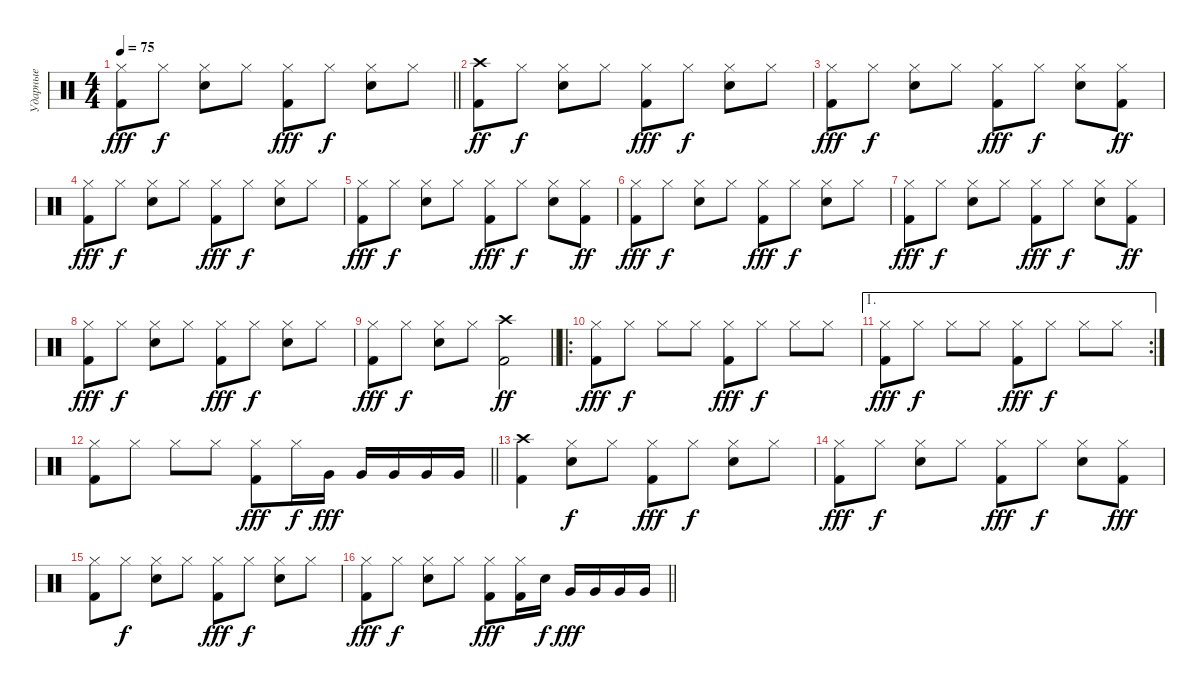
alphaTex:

\track ("Ударные" "Ударные") {instrument percussion}
\staff
\articulation defaults
\ts (4 4)
\tempo 75
\clef neutral
\barLineRight lightlight
\ks c
("Kick (hit) 2" "Hi-Hat (closed)").8{dy fff} "Hi-Hat (closed)".8{dy f} ("Snare (hit) 2" "Hi-Hat (closed)").8 "Hi-Hat (closed)".8 ("Kick (hit) 2" "Hi-Hat (closed)").8{dy fff} "Hi-Hat (closed)".8{dy f} ("Snare (hit) 2" "Hi-Hat (closed)").8 "Hi-Hat (closed)".8 |
("Kick (hit) 2" "Crash high (hit)").8{dy ff} "Hi-Hat (closed)".8{dy f} ("Snare (hit) 2" "Hi-Hat (closed)").8 "Hi-Hat (closed)".8 ("Kick (hit) 2" "Hi-Hat (closed)").8{dy fff} "Hi-Hat (closed)".8{dy f} ("Snare (hit) 2" "Hi-Hat (closed)").8 "Hi-Hat (closed)".8 |
("Kick (hit) 2" "Hi-Hat (closed)").8{dy fff} "Hi-Hat (closed)".8{dy f} ("Snare (hit) 2" "Hi-Hat (closed)").8 "Hi-Hat (closed)".8 ("Kick (hit) 2" "Hi-Hat (closed)").8{dy fff} "Hi-Hat (closed)".8{dy f} ("Snare (hit) 2" "Hi-Hat (closed)").8 ("Kick (hit) 2" "Hi-Hat (closed)").8{dy ff} |
("Kick (hit) 2" "Hi-Hat (closed)").8{dy fff} "Hi-Hat (closed)".8{dy f} ("Snare (hit) 2" "Hi-Hat (closed)").8 "Hi-Hat (closed)".8 ("Kick (hit) 2" "Hi-Hat (closed)").8{dy fff} "Hi-Hat (closed)".8{dy f} ("Snare (hit) 2" "Hi-Hat (closed)").8 "Hi-Hat (closed)".8 |
("Kick (hit) 2" "Hi-Hat (closed)").8{dy fff} "Hi-Hat (closed)".8{dy f} ("Snare (hit) 2" "Hi-Hat (closed)").8 "Hi-Hat (closed)".8 ("Kick (hit) 2" "Hi-Hat (closed)").8{dy fff} "Hi-Hat (closed)".8{dy f} ("Snare (hit) 2" "Hi-Hat (closed)").8 ("Kick (hit) 2" "Hi-Hat (closed)").8{dy ff} |
("Kick (hit) 2" "Hi-Hat (closed)").8{dy fff} "Hi-Hat (closed)".8{dy f} ("Snare (hit) 2" "Hi-Hat (closed)").8 "Hi-Hat (closed)".8 ("Kick (hit) 2" "Hi-Hat (closed)").8{dy fff} "Hi-Hat (closed)".8{dy f} ("Snare (hit) 2" "Hi-Hat (closed)").8 "Hi-Hat (closed)".8 |
("Kick (hit) 2" "Hi-Hat (closed)").8{dy fff} "Hi-Hat (closed)".8{dy f} ("Snare (hit) 2" "Hi-Hat (closed)").8 "Hi-Hat (closed)".8 ("Kick (hit) 2" "Hi-Hat (closed)").8{dy fff} "Hi-Hat (closed)".8{dy f} ("Snare (hit) 2" "Hi-Hat (closed)").8 ("Kick (hit) 2" "Hi-Hat (closed)").8{dy ff} |
("Kick (hit) 2" "Hi-Hat (closed)").8{dy fff} "Hi-Hat (closed)".8{dy f} ("Snare (hit) 2" "Hi-Hat (closed)").8 "Hi-Hat (closed)".8 ("Kick (hit) 2" "Hi-Hat (closed)").8{dy fff} "Hi-Hat (closed)".8{dy f} ("Snare (hit) 2" "Hi-Hat (closed)").8 "Hi-Hat (closed)".8 |
\barLineRight lightlight
("Kick (hit) 2" "Hi-Hat (closed)").8{dy fff} "Hi-Hat (closed)".8{dy f} ("Snare (hit) 2" "Hi-Hat (closed)").8 "Hi-Hat (closed)".8 ("Kick (hit) 2" "Crash high (hit)").2{dy ff} |
\ro
("Kick (hit) 2" "Hi-Hat (closed)").8{dy fff} "Hi-Hat (closed)".8{dy f} "Hi-Hat (closed)".8 "Hi-Hat (closed)".8 ("Kick (hit) 2" "Hi-Hat (closed)").8{dy fff} "Hi-Hat (closed)".8{dy f} "Hi-Hat (closed)".8 "Hi-Hat (closed)".8 |
\ae 1
\rc 2
("Kick (hit) 2" "Hi-Hat (closed)").8{dy fff} "Hi-Hat (closed)".8{dy f} "Hi-Hat (closed)".8 "Hi-Hat (closed)".8 ("Kick (hit) 2" "Hi-Hat (closed)").8{dy fff} "Hi-Hat (closed)".8{dy f} "Hi-Hat (closed)".8 "Hi-Hat (closed)".8 |
\barLineRight lightlight
("Kick (hit) 2" "Hi-Hat (closed)").8 "Hi-Hat (closed)".8 "Hi-Hat (closed)".8 "Hi-Hat (closed)".8 ("Kick (hit) 2" "Hi-Hat (closed)").8{dy fff} "Hi-Hat (closed)".16{dy f} "Very Low Tom (hit)".16{dy fff} "Very Low Tom (hit)".16 "Very Low Tom (hit)".16 "Very Low Tom (hit)".16 "Very Low Tom (hit)".16 |
("Kick (hit) 2" "Crash high (hit)").4 ("Snare (hit) 2" "Hi-Hat (closed)").8{dy f} "Hi-Hat (closed)".8 ("Kick (hit) 2" "Hi-Hat (closed)").8{dy fff} "Hi-Hat (closed)".8{dy f} ("Snare (hit) 2" "Hi-Hat (closed)").8 "Hi-Hat (closed)".8 |
("Kick (hit) 2" "Hi-Hat (closed)").8{dy fff} "Hi-Hat (closed)".8{dy f} ("Snare (hit) 2" "Hi-Hat (closed)").8 "Hi-Hat (closed)".8 ("Kick (hit) 2" "Hi-Hat (closed)").8{dy fff} "Hi-Hat (closed)".8{dy f} ("Snare (hit) 2" "Hi-Hat (closed)").8 ("Kick (hit) 2" "Hi-Hat (closed)").8{dy fff} |
("Kick (hit) 2" "Hi-Hat (closed)").8 "Hi-Hat (closed)".8{dy f} ("Snare (hit) 2" "Hi-Hat (closed)").8 "Hi-Hat (closed)".8 ("Kick (hit) 2" "Hi-Hat (closed)").8{dy fff} "Hi-Hat (closed)".8{dy f} ("Snare (hit) 2" "Hi-Hat (closed)").8 "Hi-Hat (closed)".8 |
\barLineRight lightlight
("Kick (hit) 2" "Hi-Hat (closed)").8{dy fff} "Hi-Hat (closed)".8{dy f} ("Snare (hit) 2" "Hi-Hat (closed)").8 "Hi-Hat (closed)".8 ("Kick (hit) 2" "Hi-Hat (closed)").8{dy fff} ("Kick (hit) 2" "Hi-Hat (closed)").16 "Snare (hit) 2".16{dy f} "Very Low Tom (hit)".16{dy fff} "Very Low Tom (hit)".16 "Very Low Tom (hit)".16 "Very Low Tom (hit)".16
